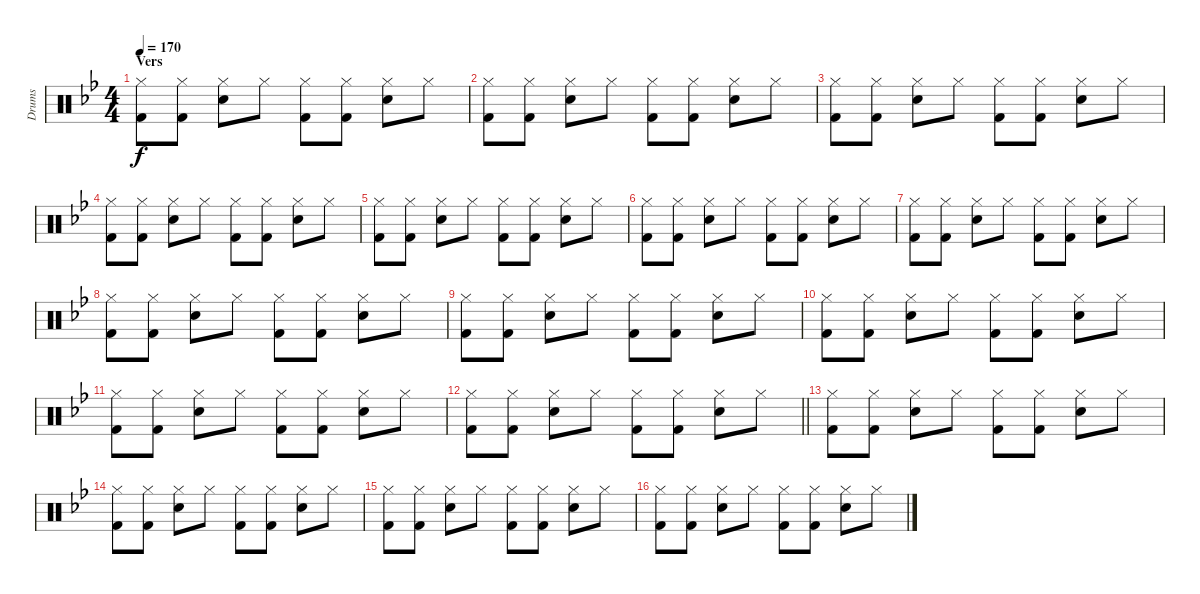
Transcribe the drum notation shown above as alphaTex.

\track ("Drums" "Drums") {instrument percussion}
\staff {score}
\articulation defaults
\ts (4 4)
\section ("" "Vers")
\tempo 170
\clef neutral
\ks bb
("Hi-Hat (closed)" "Kick (hit) 2").8{dy f} ("Hi-Hat (closed)" "Kick (hit) 2").8 ("Hi-Hat (closed)" "Snare (hit) 2").8 "Hi-Hat (closed)".8 ("Hi-Hat (closed)" "Kick (hit) 2").8 ("Hi-Hat (closed)" "Kick (hit) 2").8 ("Hi-Hat (closed)" "Snare (hit) 2").8 "Hi-Hat (closed)".8 |
("Hi-Hat (closed)" "Kick (hit) 2").8 ("Hi-Hat (closed)" "Kick (hit) 2").8 ("Hi-Hat (closed)" "Snare (hit) 2").8 "Hi-Hat (closed)".8 ("Hi-Hat (closed)" "Kick (hit) 2").8 ("Hi-Hat (closed)" "Kick (hit) 2").8 ("Hi-Hat (closed)" "Snare (hit) 2").8 "Hi-Hat (closed)".8 |
("Hi-Hat (closed)" "Kick (hit) 2").8 ("Hi-Hat (closed)" "Kick (hit) 2").8 ("Hi-Hat (closed)" "Snare (hit) 2").8 "Hi-Hat (closed)".8 ("Hi-Hat (closed)" "Kick (hit) 2").8 ("Hi-Hat (closed)" "Kick (hit) 2").8 ("Hi-Hat (closed)" "Snare (hit) 2").8 "Hi-Hat (closed)".8 |
("Hi-Hat (closed)" "Kick (hit) 2").8 ("Hi-Hat (closed)" "Kick (hit) 2").8 ("Hi-Hat (closed)" "Snare (hit) 2").8 "Hi-Hat (closed)".8 ("Hi-Hat (closed)" "Kick (hit) 2").8 ("Hi-Hat (closed)" "Kick (hit) 2").8 ("Hi-Hat (closed)" "Snare (hit) 2").8 "Hi-Hat (closed)".8 |
("Hi-Hat (closed)" "Kick (hit) 2").8 ("Hi-Hat (closed)" "Kick (hit) 2").8 ("Hi-Hat (closed)" "Snare (hit) 2").8 "Hi-Hat (closed)".8 ("Hi-Hat (closed)" "Kick (hit) 2").8 ("Hi-Hat (closed)" "Kick (hit) 2").8 ("Hi-Hat (closed)" "Snare (hit) 2").8 "Hi-Hat (closed)".8 |
("Hi-Hat (closed)" "Kick (hit) 2").8 ("Hi-Hat (closed)" "Kick (hit) 2").8 ("Hi-Hat (closed)" "Snare (hit) 2").8 "Hi-Hat (closed)".8 ("Hi-Hat (closed)" "Kick (hit) 2").8 ("Hi-Hat (closed)" "Kick (hit) 2").8 ("Hi-Hat (closed)" "Snare (hit) 2").8 "Hi-Hat (closed)".8 |
("Hi-Hat (closed)" "Kick (hit) 2").8 ("Hi-Hat (closed)" "Kick (hit) 2").8 ("Hi-Hat (closed)" "Snare (hit) 2").8 "Hi-Hat (closed)".8 ("Hi-Hat (closed)" "Kick (hit) 2").8 ("Hi-Hat (closed)" "Kick (hit) 2").8 ("Hi-Hat (closed)" "Snare (hit) 2").8 "Hi-Hat (closed)".8 |
("Hi-Hat (closed)" "Kick (hit) 2").8 ("Hi-Hat (closed)" "Kick (hit) 2").8 ("Hi-Hat (closed)" "Snare (hit) 2").8 "Hi-Hat (closed)".8 ("Hi-Hat (closed)" "Kick (hit) 2").8 ("Hi-Hat (closed)" "Kick (hit) 2").8 ("Hi-Hat (closed)" "Snare (hit) 2").8 "Hi-Hat (closed)".8 |
("Hi-Hat (closed)" "Kick (hit) 2").8 ("Hi-Hat (closed)" "Kick (hit) 2").8 ("Hi-Hat (closed)" "Snare (hit) 2").8 "Hi-Hat (closed)".8 ("Hi-Hat (closed)" "Kick (hit) 2").8 ("Hi-Hat (closed)" "Kick (hit) 2").8 ("Hi-Hat (closed)" "Snare (hit) 2").8 "Hi-Hat (closed)".8 |
("Hi-Hat (closed)" "Kick (hit) 2").8 ("Hi-Hat (closed)" "Kick (hit) 2").8 ("Hi-Hat (closed)" "Snare (hit) 2").8 "Hi-Hat (closed)".8 ("Hi-Hat (closed)" "Kick (hit) 2").8 ("Hi-Hat (closed)" "Kick (hit) 2").8 ("Hi-Hat (closed)" "Snare (hit) 2").8 "Hi-Hat (closed)".8 |
("Hi-Hat (closed)" "Kick (hit) 2").8 ("Hi-Hat (closed)" "Kick (hit) 2").8 ("Hi-Hat (closed)" "Snare (hit) 2").8 "Hi-Hat (closed)".8 ("Hi-Hat (closed)" "Kick (hit) 2").8 ("Hi-Hat (closed)" "Kick (hit) 2").8 ("Hi-Hat (closed)" "Snare (hit) 2").8 "Hi-Hat (closed)".8 |
\barLineRight lightlight
("Hi-Hat (closed)" "Kick (hit) 2").8 ("Hi-Hat (closed)" "Kick (hit) 2").8 ("Hi-Hat (closed)" "Snare (hit) 2").8 "Hi-Hat (closed)".8 ("Hi-Hat (closed)" "Kick (hit) 2").8 ("Hi-Hat (closed)" "Kick (hit) 2").8 ("Hi-Hat (closed)" "Snare (hit) 2").8 "Hi-Hat (closed)".8 |
("Hi-Hat (closed)" "Kick (hit) 2").8 ("Hi-Hat (closed)" "Kick (hit) 2").8 ("Hi-Hat (closed)" "Snare (hit) 2").8 "Hi-Hat (closed)".8 ("Hi-Hat (closed)" "Kick (hit) 2").8 ("Hi-Hat (closed)" "Kick (hit) 2").8 ("Hi-Hat (closed)" "Snare (hit) 2").8 "Hi-Hat (closed)".8 |
("Hi-Hat (closed)" "Kick (hit) 2").8 ("Hi-Hat (closed)" "Kick (hit) 2").8 ("Hi-Hat (closed)" "Snare (hit) 2").8 "Hi-Hat (closed)".8 ("Hi-Hat (closed)" "Kick (hit) 2").8 ("Hi-Hat (closed)" "Kick (hit) 2").8 ("Hi-Hat (closed)" "Snare (hit) 2").8 "Hi-Hat (closed)".8 |
("Hi-Hat (closed)" "Kick (hit) 2").8 ("Hi-Hat (closed)" "Kick (hit) 2").8 ("Hi-Hat (closed)" "Snare (hit) 2").8 "Hi-Hat (closed)".8 ("Hi-Hat (closed)" "Kick (hit) 2").8 ("Hi-Hat (closed)" "Kick (hit) 2").8 ("Hi-Hat (closed)" "Snare (hit) 2").8 "Hi-Hat (closed)".8 |
("Hi-Hat (closed)" "Kick (hit) 2").8 ("Hi-Hat (closed)" "Kick (hit) 2").8 ("Hi-Hat (closed)" "Snare (hit) 2").8 "Hi-Hat (closed)".8 ("Hi-Hat (closed)" "Kick (hit) 2").8 ("Hi-Hat (closed)" "Kick (hit) 2").8 ("Hi-Hat (closed)" "Snare (hit) 2").8 "Hi-Hat (closed)".8
